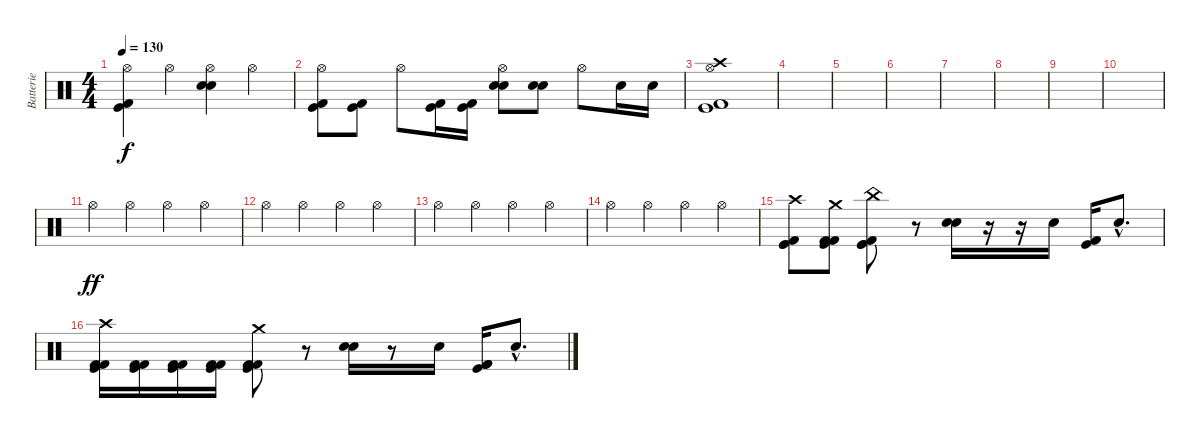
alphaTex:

\track ("Batterie" "Batterie") {instrument percussion}
\staff {score}
\articulation defaults
\ts (4 4)
\tempo 130
\clef neutral
\ks c
("Hi-Hat (open)" "Kick (hit) 2" "Kick (hit)").4{dy f} "Hi-Hat (open)".4 ("Hi-Hat (open)" "Electric Snare (hit)" "Electric Snare (hit)").4 "Hi-Hat (open)".4 |
("Hi-Hat (open)" "Kick (hit) 2" "Kick (hit)").8 ("Kick (hit)" "Kick (hit) 2").8 "Hi-Hat (open)".8 ("Kick (hit) 2" "Kick (hit)").16 ("Kick (hit)" "Kick (hit) 2").16 ("Hi-Hat (open)" "Electric Snare (hit)" "Electric Snare (hit)").8 ("Electric Snare (hit)" "Electric Snare (hit)").8 "Hi-Hat (open)".8 "Electric Snare (hit)".16 "Electric Snare (hit)".16 |
("Hi-Hat (open)" "Crash high (hit)" "Kick (hit) 2" "Kick (hit)").1 |
|
|
|
|
|
|
|
"Hi-Hat (open)".4{dy ff} "Hi-Hat (open)".4 "Hi-Hat (open)".4 "Hi-Hat (open)".4 |
"Hi-Hat (open)".4 "Hi-Hat (open)".4 "Hi-Hat (open)".4 "Hi-Hat (open)".4 |
"Hi-Hat (open)".4 "Hi-Hat (open)".4 "Hi-Hat (open)".4 "Hi-Hat (open)".4 |
"Hi-Hat (open)".4 "Hi-Hat (open)".4 "Hi-Hat (open)".4 "Hi-Hat (open)".4 |
("Crash high (hit)" "Kick (hit)" "Kick (hit) 2" "Kick (hit)").8 ("Crash medium (hit)" "Kick (hit) 2" "Kick (hit)" "Kick (hit) 2").8 ("China (hit)" "Kick (hit)" "Kick (hit) 2" "Kick (hit)").8 r.8 ("Electric Snare (hit)" "Electric Snare (hit)").16 r.16 r.16 "Electric Snare (hit)".16 ("Kick (hit) 2" "Kick (hit)").16 "Electric Snare (hit)"{hac}.8{d} |
("Crash high (hit)" "Kick (hit) 2" "Kick (hit)" "Kick (hit) 2").16 ("Kick (hit) 2" "Kick (hit) 2" "Kick (hit)").16 ("Kick (hit) 2" "Kick (hit)" "Kick (hit) 2").16 ("Kick (hit) 2" "Kick (hit) 2" "Kick (hit)").16 ("Crash medium (hit)" "Kick (hit) 2" "Kick (hit)" "Kick (hit) 2").8 r.8 ("Electric Snare (hit)" "Electric Snare (hit)").16 r.8 "Electric Snare (hit)".16 ("Kick (hit) 2" "Kick (hit)" "Kick (hit) 2").16 "Electric Snare (hit)"{hac}.8{d}
